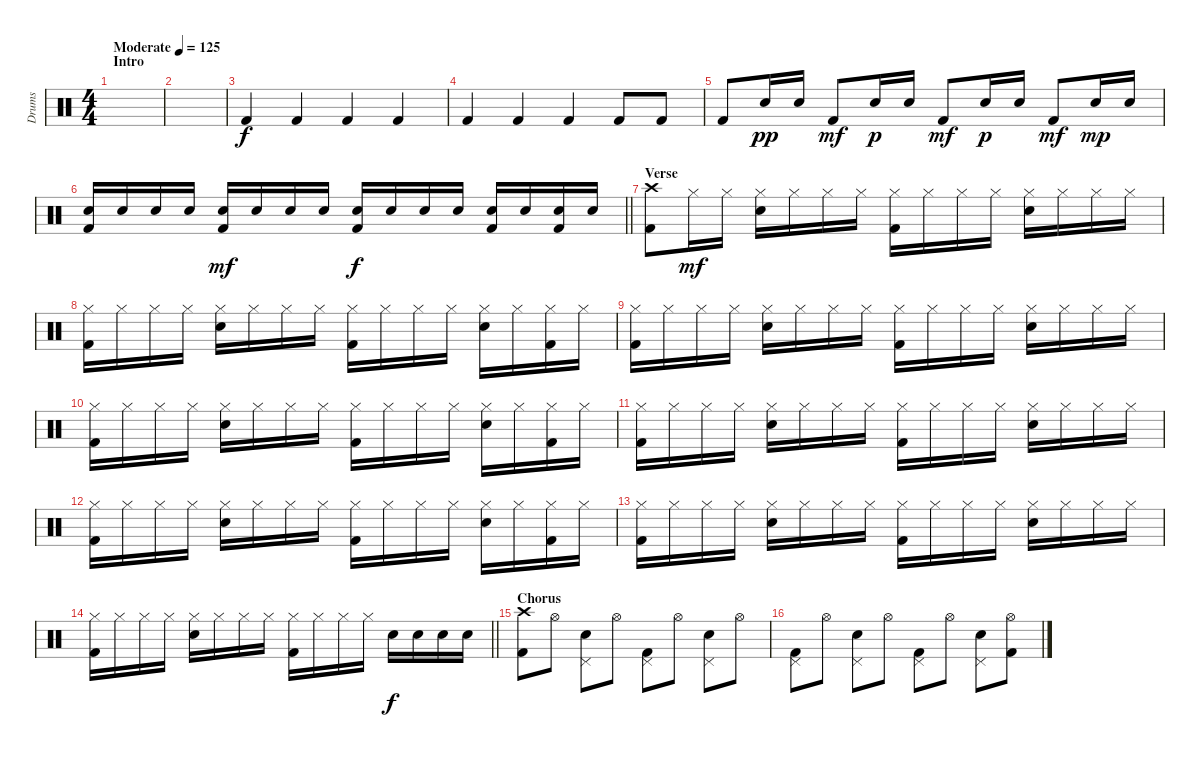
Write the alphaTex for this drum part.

\track ("Drums" "Drums") {instrument percussion}
\staff {score}
\articulation defaults
\ts (4 4)
\section ("" "Intro")
\tempo (125 "Moderate")
\clef neutral
\ks c
|
|
"Kick (hit) 2".4 "Kick (hit) 2".4 "Kick (hit) 2".4 "Kick (hit) 2".4 |
"Kick (hit) 2".4 "Kick (hit) 2".4 "Kick (hit) 2".4 "Kick (hit) 2".8 "Kick (hit) 2".8 |
"Kick (hit) 2".8 "Electric Snare (hit)".16{dy pp} "Electric Snare (hit)".16 "Kick (hit) 2".8{dy mf} "Electric Snare (hit)".16{dy p} "Electric Snare (hit)".16 "Kick (hit) 2".8{dy mf} "Electric Snare (hit)".16{dy p} "Electric Snare (hit)".16 "Kick (hit) 2".8{dy mf} "Electric Snare (hit)".16{dy mp} "Electric Snare (hit)".16 |
\barLineRight lightlight
("Electric Snare (hit)" "Kick (hit) 2").16 "Electric Snare (hit)".16 "Electric Snare (hit)".16 "Electric Snare (hit)".16 ("Electric Snare (hit)" "Kick (hit) 2").16{dy mf} "Electric Snare (hit)".16 "Electric Snare (hit)".16 "Electric Snare (hit)".16 ("Electric Snare (hit)" "Kick (hit) 2").16{dy f} "Electric Snare (hit)".16 "Electric Snare (hit)".16 "Electric Snare (hit)".16 ("Electric Snare (hit)" "Kick (hit) 2").16 "Electric Snare (hit)".16 ("Electric Snare (hit)" "Kick (hit) 2").16 "Electric Snare (hit)".16 |
\section ("" "Verse")
("Crash high (hit)" "Kick (hit) 2").8 "Hi-Hat (closed)".16{dy mf} "Hi-Hat (closed)".16 ("Hi-Hat (closed)" "Electric Snare (hit)").16 "Hi-Hat (closed)".16 "Hi-Hat (closed)".16 "Hi-Hat (closed)".16 ("Hi-Hat (closed)" "Kick (hit) 2").16 "Hi-Hat (closed)".16 "Hi-Hat (closed)".16 "Hi-Hat (closed)".16 ("Hi-Hat (closed)" "Electric Snare (hit)").16 "Hi-Hat (closed)".16 "Hi-Hat (closed)".16 "Hi-Hat (closed)".16 |
("Hi-Hat (closed)" "Kick (hit) 2").16 "Hi-Hat (closed)".16 "Hi-Hat (closed)".16 "Hi-Hat (closed)".16 ("Hi-Hat (closed)" "Electric Snare (hit)").16 "Hi-Hat (closed)".16 "Hi-Hat (closed)".16 "Hi-Hat (closed)".16 ("Hi-Hat (closed)" "Kick (hit) 2").16 "Hi-Hat (closed)".16 "Hi-Hat (closed)".16 "Hi-Hat (closed)".16 ("Hi-Hat (closed)" "Electric Snare (hit)").16 "Hi-Hat (closed)".16 ("Hi-Hat (closed)" "Kick (hit) 2").16 "Hi-Hat (closed)".16 |
("Hi-Hat (closed)" "Kick (hit) 2").16 "Hi-Hat (closed)".16 "Hi-Hat (closed)".16 "Hi-Hat (closed)".16 ("Hi-Hat (closed)" "Electric Snare (hit)").16 "Hi-Hat (closed)".16 "Hi-Hat (closed)".16 "Hi-Hat (closed)".16 ("Hi-Hat (closed)" "Kick (hit) 2").16 "Hi-Hat (closed)".16 "Hi-Hat (closed)".16 "Hi-Hat (closed)".16 ("Hi-Hat (closed)" "Electric Snare (hit)").16 "Hi-Hat (closed)".16 "Hi-Hat (closed)".16 "Hi-Hat (closed)".16 |
("Hi-Hat (closed)" "Kick (hit) 2").16 "Hi-Hat (closed)".16 "Hi-Hat (closed)".16 "Hi-Hat (closed)".16 ("Hi-Hat (closed)" "Electric Snare (hit)").16 "Hi-Hat (closed)".16 "Hi-Hat (closed)".16 "Hi-Hat (closed)".16 ("Hi-Hat (closed)" "Kick (hit) 2").16 "Hi-Hat (closed)".16 "Hi-Hat (closed)".16 "Hi-Hat (closed)".16 ("Hi-Hat (closed)" "Electric Snare (hit)").16 "Hi-Hat (closed)".16 ("Hi-Hat (closed)" "Kick (hit) 2").16 "Hi-Hat (closed)".16 |
("Hi-Hat (closed)" "Kick (hit) 2").16 "Hi-Hat (closed)".16 "Hi-Hat (closed)".16 "Hi-Hat (closed)".16 ("Hi-Hat (closed)" "Electric Snare (hit)").16 "Hi-Hat (closed)".16 "Hi-Hat (closed)".16 "Hi-Hat (closed)".16 ("Hi-Hat (closed)" "Kick (hit) 2").16 "Hi-Hat (closed)".16 "Hi-Hat (closed)".16 "Hi-Hat (closed)".16 ("Hi-Hat (closed)" "Electric Snare (hit)").16 "Hi-Hat (closed)".16 "Hi-Hat (closed)".16 "Hi-Hat (closed)".16 |
("Hi-Hat (closed)" "Kick (hit) 2").16 "Hi-Hat (closed)".16 "Hi-Hat (closed)".16 "Hi-Hat (closed)".16 ("Hi-Hat (closed)" "Electric Snare (hit)").16 "Hi-Hat (closed)".16 "Hi-Hat (closed)".16 "Hi-Hat (closed)".16 ("Hi-Hat (closed)" "Kick (hit) 2").16 "Hi-Hat (closed)".16 "Hi-Hat (closed)".16 "Hi-Hat (closed)".16 ("Hi-Hat (closed)" "Electric Snare (hit)").16 "Hi-Hat (closed)".16 ("Hi-Hat (closed)" "Kick (hit) 2").16 "Hi-Hat (closed)".16 |
("Hi-Hat (closed)" "Kick (hit) 2").16 "Hi-Hat (closed)".16 "Hi-Hat (closed)".16 "Hi-Hat (closed)".16 ("Hi-Hat (closed)" "Electric Snare (hit)").16 "Hi-Hat (closed)".16 "Hi-Hat (closed)".16 "Hi-Hat (closed)".16 ("Hi-Hat (closed)" "Kick (hit) 2").16 "Hi-Hat (closed)".16 "Hi-Hat (closed)".16 "Hi-Hat (closed)".16 ("Hi-Hat (closed)" "Electric Snare (hit)").16 "Hi-Hat (closed)".16 "Hi-Hat (closed)".16 "Hi-Hat (closed)".16 |
\barLineRight lightlight
("Hi-Hat (closed)" "Kick (hit) 2").16 "Hi-Hat (closed)".16 "Hi-Hat (closed)".16 "Hi-Hat (closed)".16 ("Hi-Hat (closed)" "Electric Snare (hit)").16 "Hi-Hat (closed)".16 "Hi-Hat (closed)".16 "Hi-Hat (closed)".16 ("Hi-Hat (closed)" "Kick (hit) 2").16 "Hi-Hat (closed)".16 "Hi-Hat (closed)".16 "Hi-Hat (closed)".16 "Electric Snare (hit)".16{dy f} "Electric Snare (hit)".16 "Electric Snare (hit)".16 "Electric Snare (hit)".16 |
\section ("" "Chorus")
("Crash high (hit)" "Kick (hit) 2").8 "Hi-Hat (open)".8 ("Pedal Hi-Hat (hit)" "Electric Snare (hit)").8 "Hi-Hat (open)".8 ("Pedal Hi-Hat (hit)" "Kick (hit) 2").8 "Hi-Hat (open)".8 ("Pedal Hi-Hat (hit)" "Electric Snare (hit)").8 "Hi-Hat (open)".8 |
("Pedal Hi-Hat (hit)" "Kick (hit) 2").8 "Hi-Hat (open)".8 ("Pedal Hi-Hat (hit)" "Electric Snare (hit)").8 "Hi-Hat (open)".8 ("Pedal Hi-Hat (hit)" "Kick (hit) 2").8 "Hi-Hat (open)".8 ("Pedal Hi-Hat (hit)" "Electric Snare (hit)").8 ("Hi-Hat (open)" "Kick (hit) 2").8
